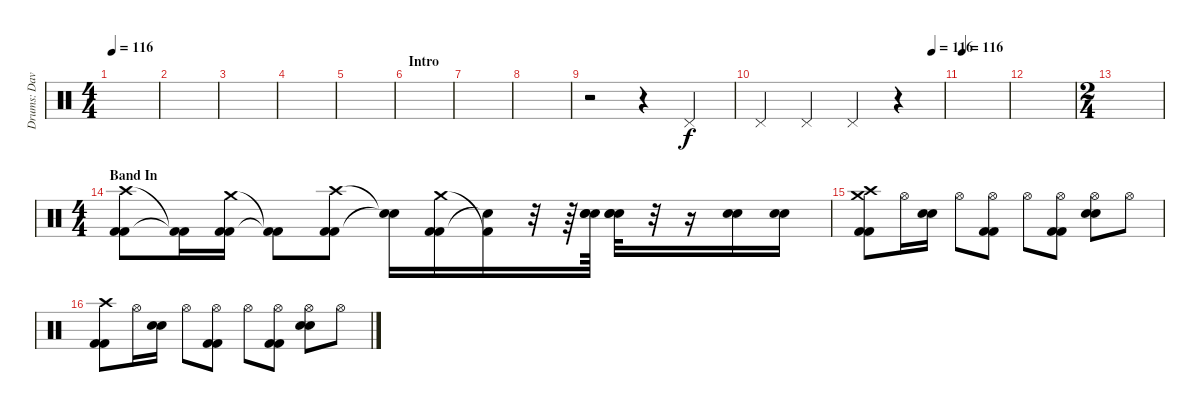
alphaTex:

\track ("Drums: Dave Krusen" "Drums: Dav") {instrument percussion}
\staff {score}
\articulation defaults
\ts (4 4)
\tempo 116
\tempo 72
\tempo 116
\clef neutral
\ks c
|
|
|
|
|
\section ("" "Intro")
|
|
|
r.2 r.4 "Pedal Hi-Hat (hit)".4 |
\tempo (116 0.9375)
"Pedal Hi-Hat (hit)".4 "Pedal Hi-Hat (hit)".4 "Pedal Hi-Hat (hit)".4 r.4 |
\tempo 116
|
|
\ts (2 4)
|
\ts (4 4)
\section ("" "Band In")
("Crash high (hit)" "Kick (hit) 2" "Kick (hit) 2").8 ("Kick (hit) 2"{t} "Kick (hit) 2"{t}).16 ("Crash medium (hit)" "Kick (hit) 2" "Kick (hit) 2").16 ("Kick (hit) 2"{t} "Kick (hit) 2"{t}).8 ("Crash high (hit)" "Kick (hit) 2" "Kick (hit) 2").8 ("Electric Snare (hit)"{t} "Snare (hit)"{t}).16 ("Crash medium (hit)" "Kick (hit) 2" "Kick (hit) 2").16 ("Kick (hit) 2"{t} "Snare (hit)"{t}).16 r.32 r.64 ("Electric Snare (hit)" "Electric Snare (hit)" "Electric Snare (hit)").64 ("Electric Snare (hit)" "Electric Snare (hit)" "Electric Snare (hit)").32 r.32 r.16 ("Electric Snare (hit)" "Electric Snare (hit)").16 ("Electric Snare (hit)" "Electric Snare (hit)").16 |
("Crash medium (hit)" "Crash high (hit)" "Kick (hit) 2" "Kick (hit) 2").8 "Hi-Hat (open)".16 ("Electric Snare (hit)" "Electric Snare (hit)").16 "Hi-Hat (open)".8 ("Hi-Hat (open)" "Kick (hit) 2" "Kick (hit) 2").8 "Hi-Hat (open)".8 ("Hi-Hat (open)" "Kick (hit) 2" "Kick (hit) 2").8 ("Hi-Hat (open)" "Electric Snare (hit)" "Electric Snare (hit)").8 "Hi-Hat (open)".8 |
("Crash high (hit)" "Kick (hit) 2" "Kick (hit) 2").8 "Hi-Hat (open)".16 ("Electric Snare (hit)" "Electric Snare (hit)").16 "Hi-Hat (open)".8 ("Hi-Hat (open)" "Kick (hit) 2" "Kick (hit) 2").8 "Hi-Hat (open)".8 ("Hi-Hat (open)" "Kick (hit) 2" "Kick (hit) 2").8 ("Hi-Hat (open)" "Electric Snare (hit)" "Electric Snare (hit)").8 "Hi-Hat (open)".8
